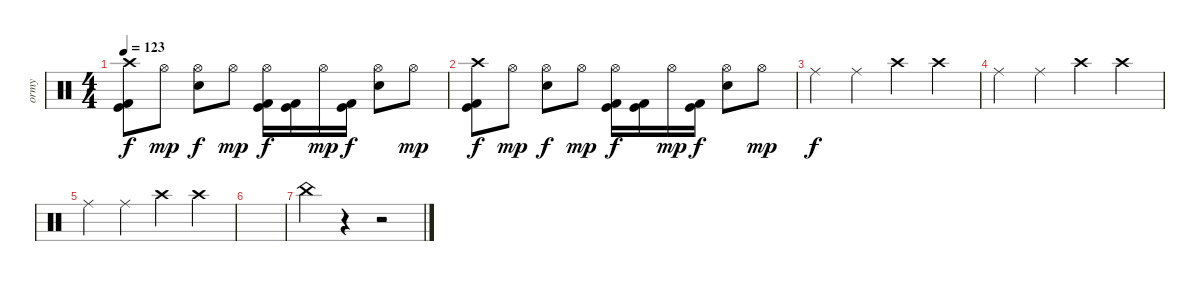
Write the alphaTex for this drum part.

\track ("ormy" "ormy") {instrument percussion}
\staff {score}
\articulation defaults
\ts (4 4)
\tempo 123
\clef neutral
\ks c
("Crash high (hit)" "Kick (hit) 2" "Kick (hit)").8{dy f} "Hi-Hat (open)".8{dy mp} ("Hi-Hat (open)" "Snare (hit) 2").8{dy f} "Hi-Hat (open)".8{dy mp} ("Hi-Hat (open)" "Kick (hit) 2" "Kick (hit)").16{dy f} ("Kick (hit) 2" "Kick (hit)").16 "Hi-Hat (open)".16{dy mp} ("Kick (hit) 2" "Kick (hit)").16{dy f} ("Hi-Hat (open)" "Snare (hit) 2").8 "Hi-Hat (open)".8{dy mp} |
("Crash high (hit)" "Kick (hit) 2" "Kick (hit)").8{dy f} "Hi-Hat (open)".8{dy mp} ("Hi-Hat (open)" "Snare (hit) 2").8{dy f} "Hi-Hat (open)".8{dy mp} ("Hi-Hat (open)" "Kick (hit) 2" "Kick (hit)").16{dy f} ("Kick (hit) 2" "Kick (hit)").16 "Hi-Hat (open)".16{dy mp} ("Kick (hit) 2" "Kick (hit)").16{dy f} ("Hi-Hat (open)" "Snare (hit) 2").8 "Hi-Hat (open)".8{dy mp} |
"Ride (middle)".4{dy f} "Ride (middle)".4 "Crash high (hit)".4 "Crash high (hit)".4 |
"Ride (middle)".4 "Ride (middle)".4 "Crash high (hit)".4 "Crash high (hit)".4 |
"Ride (middle)".4 "Ride (middle)".4 "Crash high (hit)".4 "Crash high (hit)".4 |
|
"China (hit)".4 r.4 r.2
